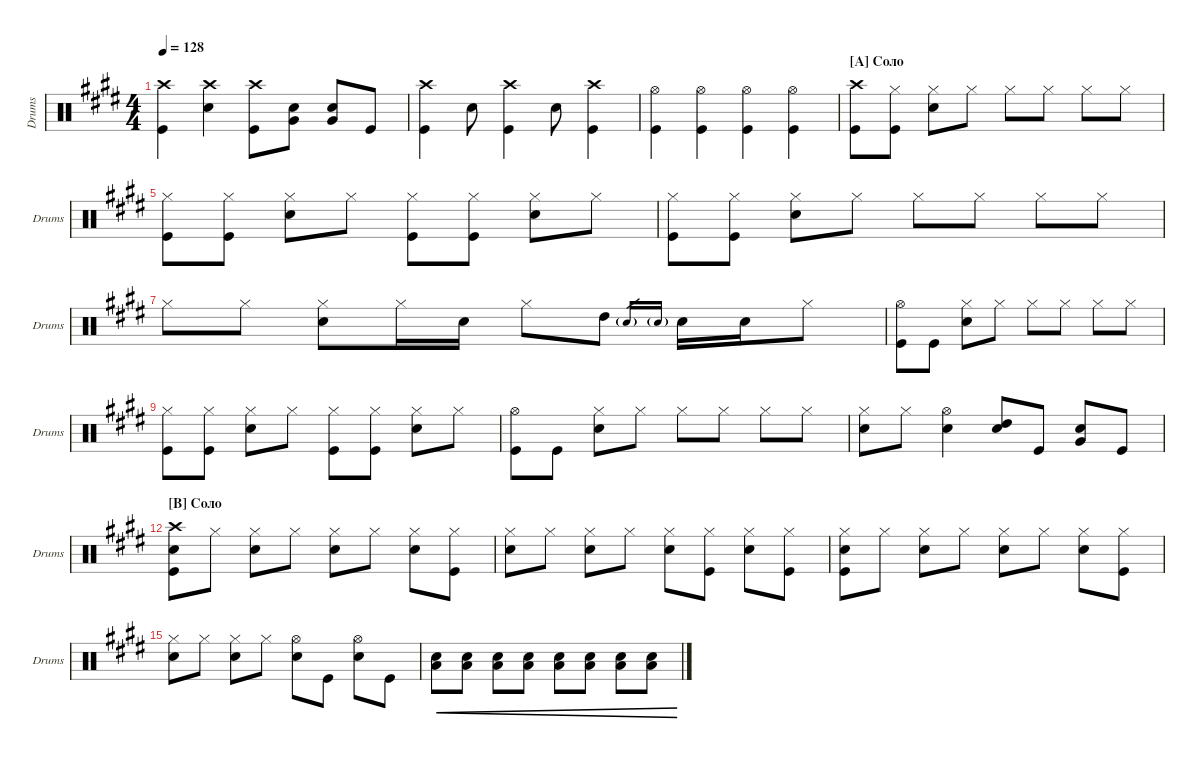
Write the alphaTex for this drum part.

\defaultSystemsLayout 4
\hideDynamics
\bracketExtendMode groupsimilarinstruments
\singleTrackTrackNamePolicy allsystems
\multiTrackTrackNamePolicy allsystems
\otherSystemsTrackNameOrientation horizontal
\defaultBarNumberDisplay FirstOfSystem
\track ("Drumkit" "Drums") {instrument percussion}
\staff {score}
\articulation defaults
\ts (4 4)
\tempo 128
\clef neutral
\ks e
("Kick (hit)" "Crash high (hit)").4{dy mf} ("Snare (hit) 2" "Crash high (hit)").4 ("Kick (hit)" "Crash high (hit)").8 ("Snare (hit) 2" "Very Low Tom (hit)").8 ("Snare (hit) 2" "Very Low Tom (hit)").8 "Kick (hit)".8 |
("Kick (hit)" "Crash high (hit)").4 "Snare (hit) 2".8 ("Kick (hit)" "Crash high (hit)").4 "Snare (hit) 2".8 ("Kick (hit)" "Crash high (hit)").4 |
("Hi-Hat (open)" "Kick (hit)").4 ("Hi-Hat (open)" "Kick (hit)").4 ("Hi-Hat (open)" "Kick (hit)").4 ("Hi-Hat (open)" "Kick (hit)").4 |
\section ("A" "Соло")
("Crash high (hit)" "Kick (hit)").8 ("Kick (hit)" "Hi-Hat (closed)").8 ("Snare (hit) 2" "Hi-Hat (closed)").8 "Hi-Hat (closed)".8 "Hi-Hat (closed)".8 "Hi-Hat (closed)".8 "Hi-Hat (closed)".8 "Hi-Hat (closed)".8 |
("Kick (hit)" "Hi-Hat (closed)").8 ("Kick (hit)" "Hi-Hat (closed)").8 ("Snare (hit) 2" "Hi-Hat (closed)").8 "Hi-Hat (closed)".8 ("Hi-Hat (closed)" "Kick (hit)").8 ("Hi-Hat (closed)" "Kick (hit)").8 ("Hi-Hat (closed)" "Snare (hit) 2").8 "Hi-Hat (closed)".8 |
("Kick (hit)" "Hi-Hat (closed)").8 ("Kick (hit)" "Hi-Hat (closed)").8 ("Snare (hit) 2" "Hi-Hat (closed)").8 "Hi-Hat (closed)".8 "Hi-Hat (closed)".8 "Hi-Hat (closed)".8 "Hi-Hat (closed)".8 "Hi-Hat (closed)".8 |
"Hi-Hat (closed)".8 "Hi-Hat (closed)".8 ("Hi-Hat (closed)" "Snare (hit) 2").8 "Hi-Hat (closed)".16 "Snare (hit) 2".16 "Hi-Hat (closed)".8 "High Tom (hit)".8 "Snare (hit) 2"{g}.16{gr} "Snare (hit) 2"{g}.16{gr} "Snare (hit) 2".16 "Snare (hit) 2".16 "Hi-Hat (closed)".8 |
("Hi-Hat (open)" "Kick (hit)").8 "Kick (hit)".8 ("Hi-Hat (closed)" "Snare (hit) 2").8 "Hi-Hat (closed)".8 "Hi-Hat (closed)".8 "Hi-Hat (closed)".8 "Hi-Hat (closed)".8 "Hi-Hat (closed)".8 |
("Kick (hit)" "Hi-Hat (closed)").8 ("Kick (hit)" "Hi-Hat (closed)").8 ("Snare (hit) 2" "Hi-Hat (closed)").8 "Hi-Hat (closed)".8 ("Hi-Hat (closed)" "Kick (hit)").8 ("Hi-Hat (closed)" "Kick (hit)").8 ("Hi-Hat (closed)" "Snare (hit) 2").8 "Hi-Hat (closed)".8 |
("Hi-Hat (open)" "Kick (hit)").8 "Kick (hit)".8 ("Snare (hit) 2" "Hi-Hat (closed)").8 "Hi-Hat (closed)".8 "Hi-Hat (closed)".8 "Hi-Hat (closed)".8 "Hi-Hat (closed)".8 "Hi-Hat (closed)".8 |
("Snare (hit) 2" "Hi-Hat (closed)").8 "Hi-Hat (closed)".8 ("Hi-Hat (open)" "Snare (hit) 2").4 ("Snare (hit) 2" "High Tom (hit)").8 "Kick (hit)".8 ("Snare (hit) 2" "Very Low Tom (hit)").8 "Kick (hit)".8 |
\section ("B" "Соло")
("Snare (hit) 2" "Kick (hit)" "Crash high (hit)").8 "Hi-Hat (closed)".8 ("Hi-Hat (closed)" "Snare (hit) 2").8 "Hi-Hat (closed)".8 ("Hi-Hat (closed)" "Snare (hit) 2").8 "Hi-Hat (closed)".8 ("Hi-Hat (closed)" "Snare (hit) 2").8 ("Hi-Hat (closed)" "Kick (hit)").8 |
("Hi-Hat (closed)" "Snare (hit) 2").8 "Hi-Hat (closed)".8 ("Hi-Hat (closed)" "Snare (hit) 2").8 "Hi-Hat (closed)".8 ("Hi-Hat (closed)" "Snare (hit) 2").8 ("Hi-Hat (closed)" "Kick (hit)").8 ("Hi-Hat (closed)" "Snare (hit) 2").8 ("Hi-Hat (closed)" "Kick (hit)").8 |
("Snare (hit) 2" "Kick (hit)" "Hi-Hat (closed)").8 "Hi-Hat (closed)".8 ("Hi-Hat (closed)" "Snare (hit) 2").8 "Hi-Hat (closed)".8 ("Hi-Hat (closed)" "Snare (hit) 2").8 "Hi-Hat (closed)".8 ("Hi-Hat (closed)" "Snare (hit) 2").8 ("Hi-Hat (closed)" "Kick (hit)").8 |
("Hi-Hat (closed)" "Snare (hit) 2").8 "Hi-Hat (closed)".8 ("Hi-Hat (closed)" "Snare (hit) 2").8 "Hi-Hat (closed)".8 ("Hi-Hat (open)" "Snare (hit) 2").8 "Kick (hit)".8 ("Hi-Hat (open)" "Snare (hit) 2").8 "Kick (hit)".8 |
("Snare (hit) 2" "Low Tom (hit)").8{cre} ("Snare (hit) 2" "Low Tom (hit)").8{cre} ("Snare (hit) 2" "Low Tom (hit)").8{cre} ("Snare (hit) 2" "Low Tom (hit)").8{cre} ("Snare (hit) 2" "Low Tom (hit)").8{cre} ("Snare (hit) 2" "Low Tom (hit)").8{cre} ("Snare (hit) 2" "Low Tom (hit)").8{cre} ("Snare (hit) 2" "Low Tom (hit)").8{cre}
